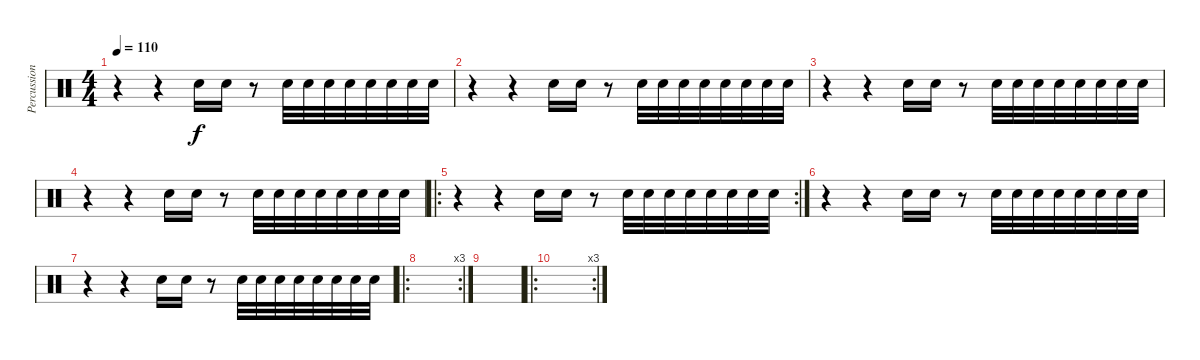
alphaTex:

\track ("Percussions" "Percussion") {instrument percussion}
\staff {score}
\articulation defaults
\ts (4 4)
\tempo 110
\clef neutral
\ks c
r.4{dy f volume 13} r.4 "Electric Snare (hit)".16 "Electric Snare (hit)".16 r.8 "Electric Snare (hit)".32 "Electric Snare (hit)".32{volume 12} "Electric Snare (hit)".32{volume 11} "Electric Snare (hit)".32{volume 11} "Electric Snare (hit)".32{volume 11} "Electric Snare (hit)".32{volume 11} "Electric Snare (hit)".32{volume 11} "Electric Snare (hit)".32{volume 11} |
r.4{volume 13} r.4 "Electric Snare (hit)".16 "Electric Snare (hit)".16 r.8 "Electric Snare (hit)".32 "Electric Snare (hit)".32{volume 12} "Electric Snare (hit)".32{volume 11} "Electric Snare (hit)".32{volume 11} "Electric Snare (hit)".32{volume 11} "Electric Snare (hit)".32{volume 11} "Electric Snare (hit)".32{volume 11} "Electric Snare (hit)".32{volume 11} |
r.4{volume 13} r.4 "Electric Snare (hit)".16 "Electric Snare (hit)".16 r.8 "Electric Snare (hit)".32 "Electric Snare (hit)".32{volume 12} "Electric Snare (hit)".32{volume 11} "Electric Snare (hit)".32{volume 11} "Electric Snare (hit)".32{volume 11} "Electric Snare (hit)".32{volume 11} "Electric Snare (hit)".32{volume 11} "Electric Snare (hit)".32{volume 11} |
r.4{volume 13} r.4 "Electric Snare (hit)".16 "Electric Snare (hit)".16 r.8 "Electric Snare (hit)".32 "Electric Snare (hit)".32{volume 12} "Electric Snare (hit)".32{volume 11} "Electric Snare (hit)".32{volume 11} "Electric Snare (hit)".32{volume 11} "Electric Snare (hit)".32{volume 11} "Electric Snare (hit)".32{volume 11} "Electric Snare (hit)".32{volume 11} |
\ro
\rc 2
r.4{volume 13} r.4 "Electric Snare (hit)".16 "Electric Snare (hit)".16 r.8 "Electric Snare (hit)".32 "Electric Snare (hit)".32{volume 12} "Electric Snare (hit)".32{volume 11} "Electric Snare (hit)".32{volume 11} "Electric Snare (hit)".32{volume 11} "Electric Snare (hit)".32{volume 11} "Electric Snare (hit)".32{volume 11} "Electric Snare (hit)".32{volume 11} |
r.4{volume 13} r.4 "Electric Snare (hit)".16 "Electric Snare (hit)".16 r.8 "Electric Snare (hit)".32 "Electric Snare (hit)".32{volume 12} "Electric Snare (hit)".32{volume 11} "Electric Snare (hit)".32{volume 11} "Electric Snare (hit)".32{volume 11} "Electric Snare (hit)".32{volume 11} "Electric Snare (hit)".32{volume 11} "Electric Snare (hit)".32{volume 11} |
r.4{volume 13} r.4 "Electric Snare (hit)".16 "Electric Snare (hit)".16 r.8 "Electric Snare (hit)".32 "Electric Snare (hit)".32{volume 12} "Electric Snare (hit)".32{volume 11} "Electric Snare (hit)".32{volume 11} "Electric Snare (hit)".32{volume 11} "Electric Snare (hit)".32{volume 11} "Electric Snare (hit)".32{volume 11} "Electric Snare (hit)".32{volume 11} |
\ro
\rc 3
|
|
\ro
\rc 3
